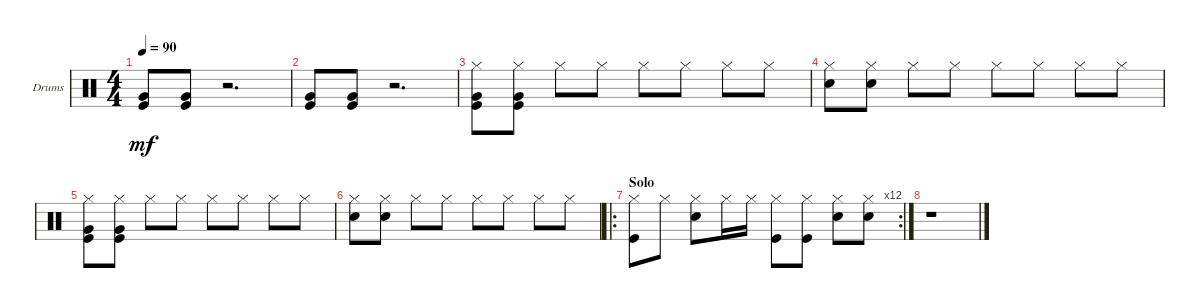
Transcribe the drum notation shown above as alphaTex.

\bracketExtendMode groupsimilarinstruments
\firstSystemTrackNameOrientation horizontal
\otherSystemsTrackNameOrientation horizontal
\track ("Drumkit" "Drums") {instrument percussion}
\staff {score}
\articulation defaults
\ts (4 4)
\tempo 90
\clef neutral
\ks c
("Kick (hit)" "Very Low Tom (hit)").8{dy mf} ("Kick (hit)" "Very Low Tom (hit)").8 r.2{d} |
("Kick (hit)" "Very Low Tom (hit)").8 ("Kick (hit)" "Very Low Tom (hit)").8 r.2{d} |
("Kick (hit)" "Very Low Tom (hit)" "Hi-Hat (closed)").8 ("Kick (hit)" "Very Low Tom (hit)" "Hi-Hat (closed)").8 "Hi-Hat (closed)".8 "Hi-Hat (closed)".8 "Hi-Hat (closed)".8 "Hi-Hat (closed)".8 "Hi-Hat (closed)".8 "Hi-Hat (closed)".8 |
("Snare (hit) 2" "Hi-Hat (closed)").8 ("Snare (hit) 2" "Hi-Hat (closed)").8 "Hi-Hat (closed)".8 "Hi-Hat (closed)".8 "Hi-Hat (closed)".8 "Hi-Hat (closed)".8 "Hi-Hat (closed)".8 "Hi-Hat (closed)".8 |
("Kick (hit)" "Very Low Tom (hit)" "Hi-Hat (closed)").8 ("Kick (hit)" "Very Low Tom (hit)" "Hi-Hat (closed)").8 "Hi-Hat (closed)".8 "Hi-Hat (closed)".8 "Hi-Hat (closed)".8 "Hi-Hat (closed)".8 "Hi-Hat (closed)".8 "Hi-Hat (closed)".8 |
("Snare (hit) 2" "Hi-Hat (closed)").8 ("Snare (hit) 2" "Hi-Hat (closed)").8 "Hi-Hat (closed)".8 "Hi-Hat (closed)".8 "Hi-Hat (closed)".8 "Hi-Hat (closed)".8 "Hi-Hat (closed)".8 "Hi-Hat (closed)".8 |
\ro
\rc 12
\section ("" "Solo")
("Hi-Hat (closed)" "Kick (hit)").8 "Hi-Hat (closed)".8 ("Hi-Hat (closed)" "Snare (hit) 2").8 "Hi-Hat (closed)".16 "Hi-Hat (closed)".16 ("Hi-Hat (closed)" "Kick (hit)").8 ("Hi-Hat (closed)" "Kick (hit)").8 ("Hi-Hat (closed)" "Snare (hit) 2").8 ("Hi-Hat (closed)" "Snare (hit) 2").8 |
r.1
